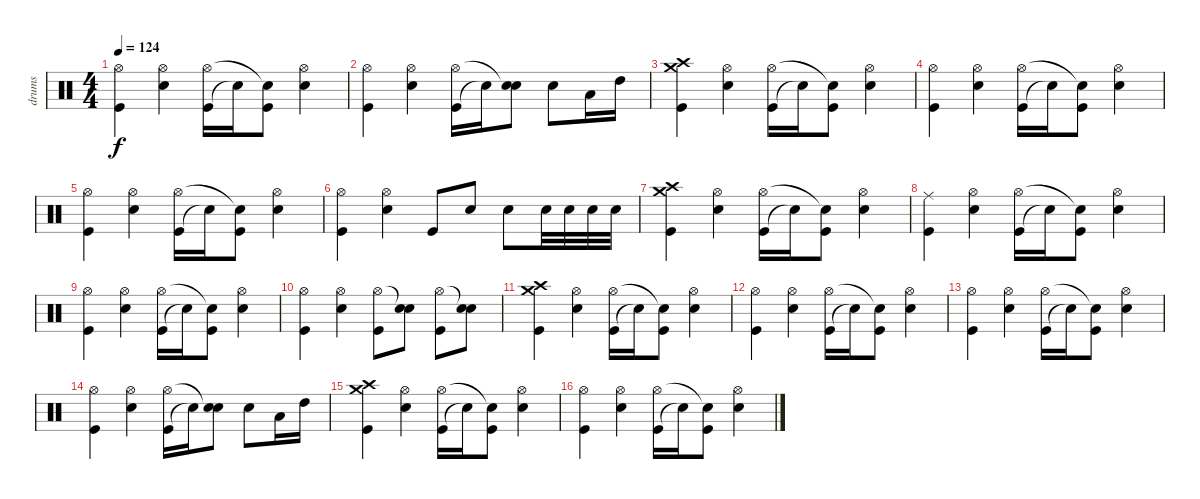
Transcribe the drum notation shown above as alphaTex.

\track ("drums" "drums") {instrument percussion}
\staff {score}
\articulation defaults
\ts (4 4)
\tempo 124
\clef neutral
\ks c
("Kick (hit)" "Hi-Hat (open)").4{dy f} ("Snare (hit) 2" "Hi-Hat (open)").4 ("Kick (hit)" "Hi-Hat (open)").16 "Snare (hit)"{t}.16 ("Kick (hit)" "Snare (hit)"{t}).8 ("Snare (hit) 2" "Hi-Hat (open)").4 |
("Kick (hit)" "Hi-Hat (open)").4 ("Snare (hit) 2" "Hi-Hat (open)").4 ("Kick (hit)" "Hi-Hat (open)").16 "Snare (hit)"{t}.16 ("Snare (hit) 2" "Snare (hit)"{t}).8 "Snare (hit) 2".8 "Low Tom (hit)".16 "High Tom (hit)".16 |
("Kick (hit)" "Crash medium (hit)" "Crash high (hit)").4 ("Snare (hit) 2" "Hi-Hat (open)").4 ("Kick (hit)" "Hi-Hat (open)").16 "Snare (hit)"{t}.16 ("Kick (hit)" "Snare (hit)"{t}).8 ("Snare (hit) 2" "Hi-Hat (open)").4 |
("Kick (hit)" "Hi-Hat (open)").4 ("Snare (hit) 2" "Hi-Hat (open)").4 ("Kick (hit)" "Hi-Hat (open)").16 "Snare (hit)"{t}.16 ("Kick (hit)" "Snare (hit)"{t}).8 ("Snare (hit) 2" "Hi-Hat (open)").4 |
("Kick (hit)" "Hi-Hat (open)").4 ("Snare (hit) 2" "Hi-Hat (open)").4 ("Kick (hit)" "Hi-Hat (open)").16 "Snare (hit)"{t}.16 ("Kick (hit)" "Snare (hit)"{t}).8 ("Snare (hit) 2" "Hi-Hat (open)").4 |
("Kick (hit)" "Hi-Hat (open)").4 ("Snare (hit) 2" "Hi-Hat (open)").4 "Kick (hit)".8 "Snare (hit) 2".8 "Snare (hit) 2".8 "Snare (hit) 2".32 "Snare (hit) 2".32 "Snare (hit) 2".32 "Snare (hit) 2".32 |
("Kick (hit)" "Crash medium (hit)" "Crash high (hit)").4 ("Snare (hit) 2" "Hi-Hat (open)").4 ("Kick (hit)" "Hi-Hat (open)").16 "Snare (hit)"{t}.16 ("Kick (hit)" "Snare (hit)"{t}).8 ("Snare (hit) 2" "Hi-Hat (open)").4 |
("Kick (hit)" "Ride (middle)").4 ("Snare (hit) 2" "Hi-Hat (open)").4 ("Kick (hit)" "Hi-Hat (open)").16 "Snare (hit)"{t}.16 ("Kick (hit)" "Snare (hit)"{t}).8 ("Snare (hit) 2" "Hi-Hat (open)").4 |
("Kick (hit)" "Hi-Hat (open)").4 ("Snare (hit) 2" "Hi-Hat (open)").4 ("Kick (hit)" "Hi-Hat (open)").16 "Snare (hit)"{t}.16 ("Kick (hit)" "Snare (hit)"{t}).8 ("Snare (hit) 2" "Hi-Hat (open)").4 |
("Kick (hit)" "Hi-Hat (open)").4 ("Snare (hit) 2" "Hi-Hat (open)").4 ("Kick (hit)" "Hi-Hat (open)").8 ("Snare (hit) 2" "Snare (hit)"{t}).8 ("Kick (hit)" "Hi-Hat (open)").8 ("Snare (hit) 2" "Snare (hit)"{t}).8 |
("Kick (hit)" "Crash medium (hit)" "Crash high (hit)").4 ("Snare (hit) 2" "Hi-Hat (open)").4 ("Kick (hit)" "Hi-Hat (open)").16 "Snare (hit)"{t}.16 ("Kick (hit)" "Snare (hit)"{t}).8 ("Snare (hit) 2" "Hi-Hat (open)").4 |
("Kick (hit)" "Hi-Hat (open)").4 ("Snare (hit) 2" "Hi-Hat (open)").4 ("Kick (hit)" "Hi-Hat (open)").16 "Snare (hit)"{t}.16 ("Kick (hit)" "Snare (hit)"{t}).8 ("Snare (hit) 2" "Hi-Hat (open)").4 |
("Kick (hit)" "Hi-Hat (open)").4 ("Snare (hit) 2" "Hi-Hat (open)").4 ("Kick (hit)" "Hi-Hat (open)").16 "Snare (hit)"{t}.16 ("Kick (hit)" "Snare (hit)"{t}).8 ("Snare (hit) 2" "Hi-Hat (open)").4 |
("Kick (hit)" "Hi-Hat (open)").4 ("Snare (hit) 2" "Hi-Hat (open)").4 ("Kick (hit)" "Hi-Hat (open)").16 "Snare (hit)"{t}.16 ("Snare (hit) 2" "Snare (hit)"{t}).8 "Snare (hit) 2".8 "Low Tom (hit)".16 "High Tom (hit)".16 |
("Kick (hit)" "Crash medium (hit)" "Crash high (hit)").4 ("Snare (hit) 2" "Hi-Hat (open)").4 ("Kick (hit)" "Hi-Hat (open)").16 "Snare (hit)"{t}.16 ("Kick (hit)" "Snare (hit)"{t}).8 ("Snare (hit) 2" "Hi-Hat (open)").4 |
("Kick (hit)" "Hi-Hat (open)").4 ("Snare (hit) 2" "Hi-Hat (open)").4 ("Kick (hit)" "Hi-Hat (open)").16 "Snare (hit)"{t}.16 ("Kick (hit)" "Snare (hit)"{t}).8 ("Snare (hit) 2" "Hi-Hat (open)").4
